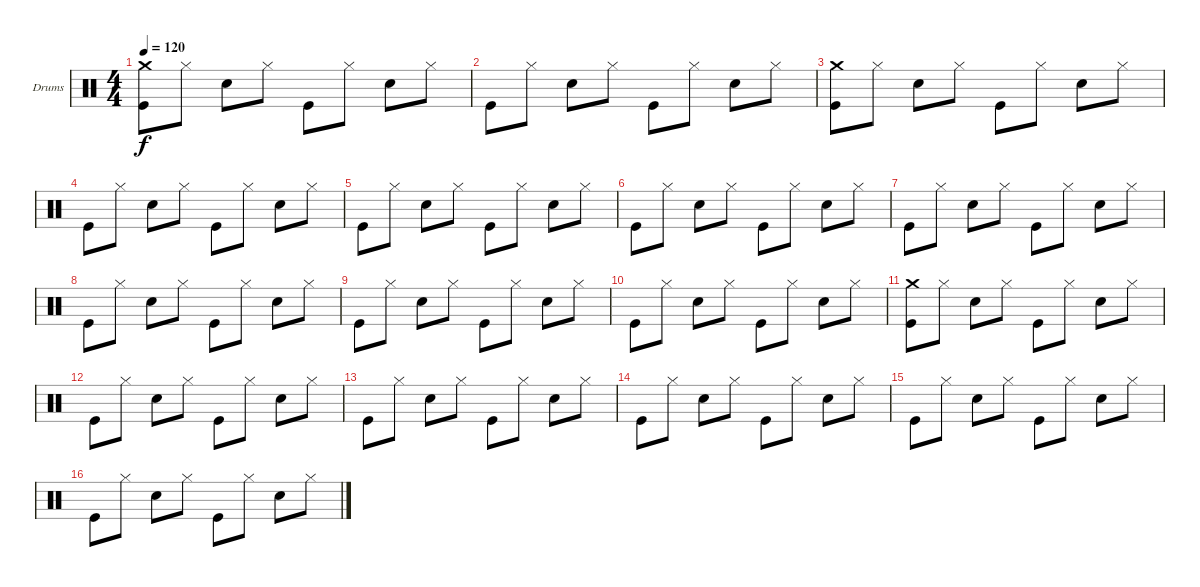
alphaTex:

\defaultSystemsLayout 4
\bracketExtendMode groupsimilarinstruments
\firstSystemTrackNameOrientation horizontal
\otherSystemsTrackNameOrientation horizontal
\track ("Е. Кулаков" "Drums") {instrument percussion}
\staff {score}
\articulation defaults
\ts (4 4)
\tempo 120
\clef neutral
\ks c
("Kick (hit)" "Crash medium (hit)").8{dy f} "Hi-Hat (closed)".8 "Snare (hit) 2".8 "Hi-Hat (closed)".8 "Kick (hit)".8 "Hi-Hat (closed)".8 "Snare (hit) 2".8 "Hi-Hat (closed)".8 |
"Kick (hit)".8 "Hi-Hat (closed)".8 "Snare (hit) 2".8 "Hi-Hat (closed)".8 "Kick (hit)".8 "Hi-Hat (closed)".8 "Snare (hit) 2".8 "Hi-Hat (closed)".8 |
("Kick (hit)" "Crash medium (hit)").8 "Hi-Hat (closed)".8 "Snare (hit) 2".8 "Hi-Hat (closed)".8 "Kick (hit)".8 "Hi-Hat (closed)".8 "Snare (hit) 2".8 "Hi-Hat (closed)".8 |
"Kick (hit)".8 "Hi-Hat (closed)".8 "Snare (hit) 2".8 "Hi-Hat (closed)".8 "Kick (hit)".8 "Hi-Hat (closed)".8 "Snare (hit) 2".8 "Hi-Hat (closed)".8 |
"Kick (hit)".8 "Hi-Hat (closed)".8 "Snare (hit) 2".8 "Hi-Hat (closed)".8 "Kick (hit)".8 "Hi-Hat (closed)".8 "Snare (hit) 2".8 "Hi-Hat (closed)".8 |
"Kick (hit)".8 "Hi-Hat (closed)".8 "Snare (hit) 2".8 "Hi-Hat (closed)".8 "Kick (hit)".8 "Hi-Hat (closed)".8 "Snare (hit) 2".8 "Hi-Hat (closed)".8 |
"Kick (hit)".8 "Hi-Hat (closed)".8 "Snare (hit) 2".8 "Hi-Hat (closed)".8 "Kick (hit)".8 "Hi-Hat (closed)".8 "Snare (hit) 2".8 "Hi-Hat (closed)".8 |
"Kick (hit)".8 "Hi-Hat (closed)".8 "Snare (hit) 2".8 "Hi-Hat (closed)".8 "Kick (hit)".8 "Hi-Hat (closed)".8 "Snare (hit) 2".8 "Hi-Hat (closed)".8 |
"Kick (hit)".8 "Hi-Hat (closed)".8 "Snare (hit) 2".8 "Hi-Hat (closed)".8 "Kick (hit)".8 "Hi-Hat (closed)".8 "Snare (hit) 2".8 "Hi-Hat (closed)".8 |
"Kick (hit)".8 "Hi-Hat (closed)".8 "Snare (hit) 2".8 "Hi-Hat (closed)".8 "Kick (hit)".8 "Hi-Hat (closed)".8 "Snare (hit) 2".8 "Hi-Hat (closed)".8 |
("Kick (hit)" "Crash medium (hit)").8 "Hi-Hat (closed)".8 "Snare (hit) 2".8 "Hi-Hat (closed)".8 "Kick (hit)".8 "Hi-Hat (closed)".8 "Snare (hit) 2".8 "Hi-Hat (closed)".8 |
"Kick (hit)".8 "Hi-Hat (closed)".8 "Snare (hit) 2".8 "Hi-Hat (closed)".8 "Kick (hit)".8 "Hi-Hat (closed)".8 "Snare (hit) 2".8 "Hi-Hat (closed)".8 |
"Kick (hit)".8 "Hi-Hat (closed)".8 "Snare (hit) 2".8 "Hi-Hat (closed)".8 "Kick (hit)".8 "Hi-Hat (closed)".8 "Snare (hit) 2".8 "Hi-Hat (closed)".8 |
"Kick (hit)".8 "Hi-Hat (closed)".8 "Snare (hit) 2".8 "Hi-Hat (closed)".8 "Kick (hit)".8 "Hi-Hat (closed)".8 "Snare (hit) 2".8 "Hi-Hat (closed)".8 |
"Kick (hit)".8 "Hi-Hat (closed)".8 "Snare (hit) 2".8 "Hi-Hat (closed)".8 "Kick (hit)".8 "Hi-Hat (closed)".8 "Snare (hit) 2".8 "Hi-Hat (closed)".8 |
"Kick (hit)".8 "Hi-Hat (closed)".8 "Snare (hit) 2".8 "Hi-Hat (closed)".8 "Kick (hit)".8 "Hi-Hat (closed)".8 "Snare (hit) 2".8 "Hi-Hat (closed)".8
